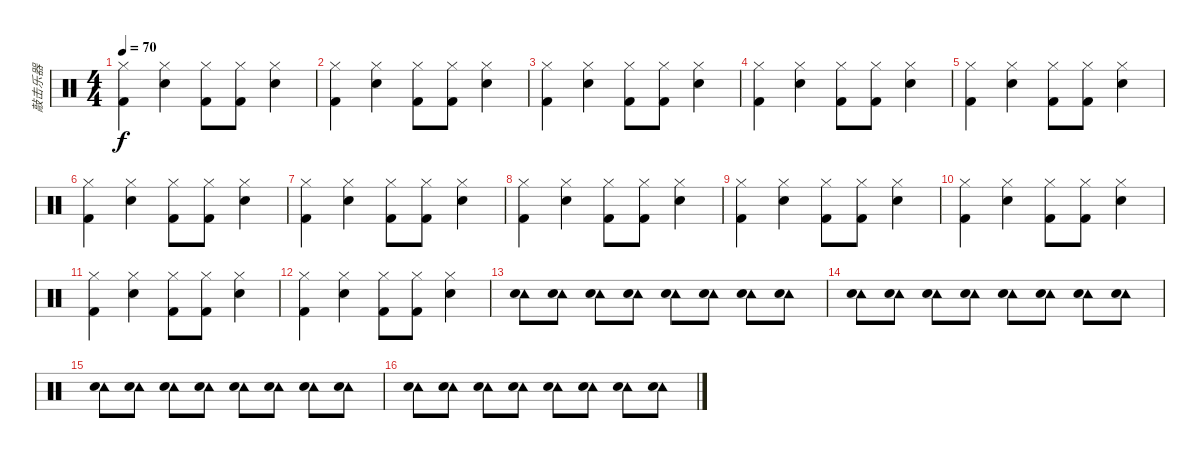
\track ("敲击乐器" "敲击乐器") {instrument percussion}
\staff {score}
\articulation defaults
\ts (4 4)
\tempo 70
\clef neutral
\ks c
("Hi-Hat (closed)" "Kick (hit) 2").4{dy f} ("Hi-Hat (closed)" "Snare (hit) 2").4 ("Hi-Hat (closed)" "Kick (hit) 2").8 ("Hi-Hat (closed)" "Kick (hit) 2").8 ("Hi-Hat (closed)" "Snare (hit) 2").4 |
("Hi-Hat (closed)" "Kick (hit) 2").4 ("Hi-Hat (closed)" "Snare (hit) 2").4 ("Hi-Hat (closed)" "Kick (hit) 2").8 ("Hi-Hat (closed)" "Kick (hit) 2").8 ("Hi-Hat (closed)" "Snare (hit) 2").4 |
("Hi-Hat (closed)" "Kick (hit) 2").4 ("Hi-Hat (closed)" "Snare (hit) 2").4 ("Hi-Hat (closed)" "Kick (hit) 2").8 ("Hi-Hat (closed)" "Kick (hit) 2").8 ("Hi-Hat (closed)" "Snare (hit) 2").4 |
("Hi-Hat (closed)" "Kick (hit) 2").4 ("Hi-Hat (closed)" "Snare (hit) 2").4 ("Hi-Hat (closed)" "Kick (hit) 2").8 ("Hi-Hat (closed)" "Kick (hit) 2").8 ("Hi-Hat (closed)" "Snare (hit) 2").4 |
("Hi-Hat (closed)" "Kick (hit) 2").4 ("Hi-Hat (closed)" "Snare (hit) 2").4 ("Hi-Hat (closed)" "Kick (hit) 2").8 ("Hi-Hat (closed)" "Kick (hit) 2").8 ("Hi-Hat (closed)" "Snare (hit) 2").4 |
("Hi-Hat (closed)" "Kick (hit) 2").4 ("Hi-Hat (closed)" "Snare (hit) 2").4 ("Hi-Hat (closed)" "Kick (hit) 2").8 ("Hi-Hat (closed)" "Kick (hit) 2").8 ("Hi-Hat (closed)" "Snare (hit) 2").4 |
("Hi-Hat (closed)" "Kick (hit) 2").4 ("Hi-Hat (closed)" "Snare (hit) 2").4 ("Hi-Hat (closed)" "Kick (hit) 2").8 ("Hi-Hat (closed)" "Kick (hit) 2").8 ("Hi-Hat (closed)" "Snare (hit) 2").4 |
("Hi-Hat (closed)" "Kick (hit) 2").4 ("Hi-Hat (closed)" "Snare (hit) 2").4 ("Hi-Hat (closed)" "Kick (hit) 2").8 ("Hi-Hat (closed)" "Kick (hit) 2").8 ("Hi-Hat (closed)" "Snare (hit) 2").4 |
("Hi-Hat (closed)" "Kick (hit) 2").4 ("Hi-Hat (closed)" "Snare (hit) 2").4 ("Hi-Hat (closed)" "Kick (hit) 2").8 ("Hi-Hat (closed)" "Kick (hit) 2").8 ("Hi-Hat (closed)" "Snare (hit) 2").4 |
("Hi-Hat (closed)" "Kick (hit) 2").4 ("Hi-Hat (closed)" "Snare (hit) 2").4 ("Hi-Hat (closed)" "Kick (hit) 2").8 ("Hi-Hat (closed)" "Kick (hit) 2").8 ("Hi-Hat (closed)" "Snare (hit) 2").4 |
("Hi-Hat (closed)" "Kick (hit) 2").4 ("Hi-Hat (closed)" "Snare (hit) 2").4 ("Hi-Hat (closed)" "Kick (hit) 2").8 ("Hi-Hat (closed)" "Kick (hit) 2").8 ("Hi-Hat (closed)" "Snare (hit) 2").4 |
("Hi-Hat (closed)" "Kick (hit) 2").4 ("Hi-Hat (closed)" "Snare (hit) 2").4 ("Hi-Hat (closed)" "Kick (hit) 2").8 ("Hi-Hat (closed)" "Kick (hit) 2").8 ("Hi-Hat (closed)" "Snare (hit) 2").4 |
("Tambourine (hit)" "Snare (hit) 2").8 ("Tambourine (hit)" "Snare (hit) 2").8 ("Tambourine (hit)" "Snare (hit) 2").8 ("Tambourine (hit)" "Snare (hit) 2").8 ("Tambourine (hit)" "Snare (hit) 2").8 ("Tambourine (hit)" "Snare (hit) 2").8 ("Tambourine (hit)" "Snare (hit) 2").8 ("Tambourine (hit)" "Snare (hit) 2").8 |
("Tambourine (hit)" "Snare (hit) 2").8 ("Tambourine (hit)" "Snare (hit) 2").8 ("Tambourine (hit)" "Snare (hit) 2").8 ("Tambourine (hit)" "Snare (hit) 2").8 ("Tambourine (hit)" "Snare (hit) 2").8 ("Tambourine (hit)" "Snare (hit) 2").8 ("Tambourine (hit)" "Snare (hit) 2").8 ("Tambourine (hit)" "Snare (hit) 2").8 |
("Tambourine (hit)" "Snare (hit) 2").8 ("Tambourine (hit)" "Snare (hit) 2").8 ("Tambourine (hit)" "Snare (hit) 2").8 ("Tambourine (hit)" "Snare (hit) 2").8 ("Tambourine (hit)" "Snare (hit) 2").8 ("Tambourine (hit)" "Snare (hit) 2").8 ("Tambourine (hit)" "Snare (hit) 2").8 ("Tambourine (hit)" "Snare (hit) 2").8 |
("Tambourine (hit)" "Snare (hit) 2").8 ("Tambourine (hit)" "Snare (hit) 2").8 ("Tambourine (hit)" "Snare (hit) 2").8 ("Tambourine (hit)" "Snare (hit) 2").8 ("Tambourine (hit)" "Snare (hit) 2").8 ("Tambourine (hit)" "Snare (hit) 2").8 ("Tambourine (hit)" "Snare (hit) 2").8 ("Tambourine (hit)" "Snare (hit) 2").8
